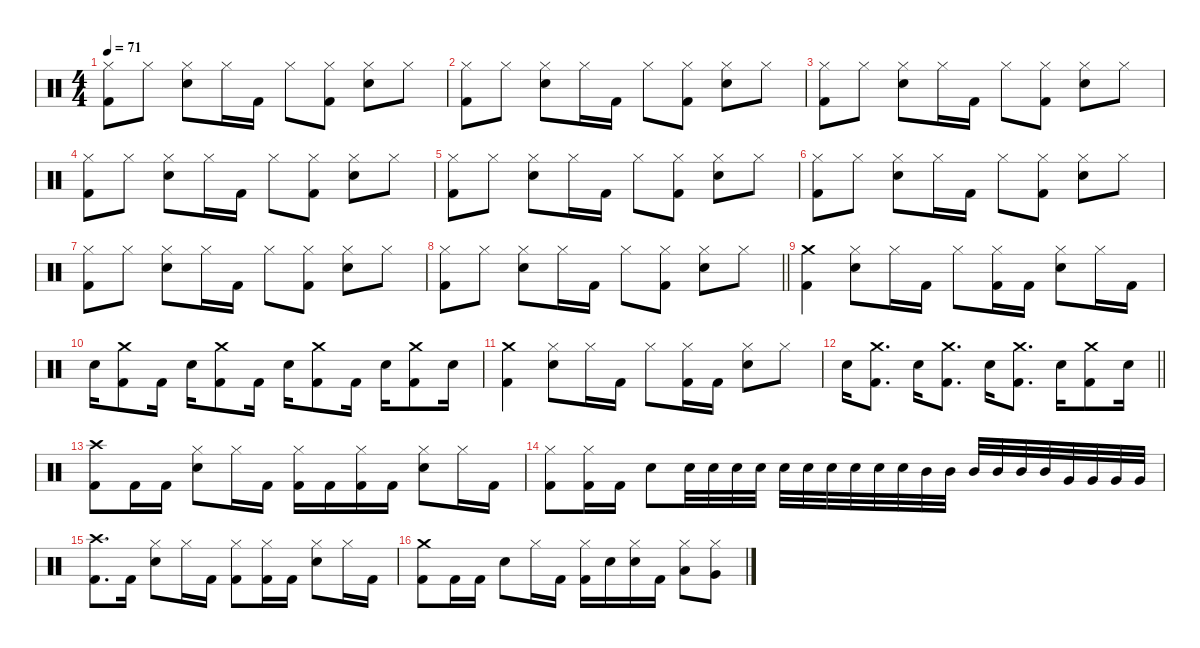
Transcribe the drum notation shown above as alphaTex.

\defaultSystemsLayout 4
\hideDynamics
\bracketExtendMode nobrackets
\singleTrackTrackNamePolicy hidden
\multiTrackTrackNamePolicy hidden
\firstSystemTrackNameMode fullname
\firstSystemTrackNameOrientation horizontal
\otherSystemsTrackNameOrientation horizontal
\track ("Drums" "drm.") {instrument percussion}
\staff {score}
\articulation defaults
\ts (4 4)
\tempo 71
\clef neutral
\ks c
("Hi-Hat (closed)" "Kick (hit) 2").8{dy f beam Down} "Hi-Hat (closed)".8{beam Down} ("Hi-Hat (closed)" "Snare (hit) 2").8{beam Down} "Hi-Hat (closed)".16{beam Down} "Kick (hit) 2".16{beam Down} "Hi-Hat (closed)".8{beam Down} ("Kick (hit) 2" "Hi-Hat (closed)").8{beam Down} ("Hi-Hat (closed)" "Snare (hit) 2").8{beam Down} "Hi-Hat (closed)".8{beam Down} |
("Hi-Hat (closed)" "Kick (hit) 2").8{beam Down} "Hi-Hat (closed)".8{beam Down} ("Hi-Hat (closed)" "Snare (hit) 2").8{beam Down} "Hi-Hat (closed)".16{beam Down} "Kick (hit) 2".16{beam Down} "Hi-Hat (closed)".8{beam Down} ("Kick (hit) 2" "Hi-Hat (closed)").8{beam Down} ("Hi-Hat (closed)" "Snare (hit) 2").8{beam Down} "Hi-Hat (closed)".8{beam Down} |
("Hi-Hat (closed)" "Kick (hit) 2").8{beam Down} "Hi-Hat (closed)".8{beam Down} ("Hi-Hat (closed)" "Snare (hit) 2").8{beam Down} "Hi-Hat (closed)".16{beam Down} "Kick (hit) 2".16{beam Down} "Hi-Hat (closed)".8{beam Down} ("Kick (hit) 2" "Hi-Hat (closed)").8{beam Down} ("Hi-Hat (closed)" "Snare (hit) 2").8{beam Down} "Hi-Hat (closed)".8{beam Down} |
("Hi-Hat (closed)" "Kick (hit) 2").8{beam Down} "Hi-Hat (closed)".8{beam Down} ("Hi-Hat (closed)" "Snare (hit) 2").8{beam Down} "Hi-Hat (closed)".16{beam Down} "Kick (hit) 2".16{beam Down} "Hi-Hat (closed)".8{beam Down} ("Kick (hit) 2" "Hi-Hat (closed)").8{beam Down} ("Hi-Hat (closed)" "Snare (hit) 2").8{beam Down} "Hi-Hat (closed)".8{beam Down} |
("Hi-Hat (closed)" "Kick (hit) 2").8{beam Down} "Hi-Hat (closed)".8{beam Down} ("Hi-Hat (closed)" "Snare (hit) 2").8{beam Down} "Hi-Hat (closed)".16{beam Down} "Kick (hit) 2".16{beam Down} "Hi-Hat (closed)".8{beam Down} ("Kick (hit) 2" "Hi-Hat (closed)").8{beam Down} ("Hi-Hat (closed)" "Snare (hit) 2").8{beam Down} "Hi-Hat (closed)".8{beam Down} |
("Hi-Hat (closed)" "Kick (hit) 2").8{beam Down} "Hi-Hat (closed)".8{beam Down} ("Hi-Hat (closed)" "Snare (hit) 2").8{beam Down} "Hi-Hat (closed)".16{beam Down} "Kick (hit) 2".16{beam Down} "Hi-Hat (closed)".8{beam Down} ("Kick (hit) 2" "Hi-Hat (closed)").8{beam Down} ("Hi-Hat (closed)" "Snare (hit) 2").8{beam Down} "Hi-Hat (closed)".8{beam Down} |
("Hi-Hat (closed)" "Kick (hit) 2").8{beam Down} "Hi-Hat (closed)".8{beam Down} ("Hi-Hat (closed)" "Snare (hit) 2").8{beam Down} "Hi-Hat (closed)".16{beam Down} "Kick (hit) 2".16{beam Down} "Hi-Hat (closed)".8{beam Down} ("Kick (hit) 2" "Hi-Hat (closed)").8{beam Down} ("Hi-Hat (closed)" "Snare (hit) 2").8{beam Down} "Hi-Hat (closed)".8{beam Down} |
\barLineRight lightlight
("Hi-Hat (closed)" "Kick (hit) 2").8{beam Down} "Hi-Hat (closed)".8{beam Down} ("Hi-Hat (closed)" "Snare (hit) 2").8{beam Down} "Hi-Hat (closed)".16{beam Down} "Kick (hit) 2".16{beam Down} "Hi-Hat (closed)".8{beam Down} ("Kick (hit) 2" "Hi-Hat (closed)").8{beam Down} ("Hi-Hat (closed)" "Snare (hit) 2").8{beam Down} "Hi-Hat (closed)".8{beam Down} |
("Crash medium (hit)" "Kick (hit) 2").4{beam Down} ("Snare (hit) 2" "Hi-Hat (closed)").8{beam Down} "Hi-Hat (closed)".16{beam Down} "Kick (hit) 2".16{beam Down} "Hi-Hat (closed)".8{beam Down} ("Hi-Hat (closed)" "Kick (hit) 2").16{beam Down} "Kick (hit) 2".16{beam Down} ("Hi-Hat (closed)" "Snare (hit) 2").8{beam Down} "Hi-Hat (closed)".16{beam Down} "Kick (hit) 2".16{beam Down} |
"Snare (hit) 2".16{beam Down} ("Crash medium (hit)" "Kick (hit) 2").8{beam Down} "Kick (hit) 2".16{beam Down} "Snare (hit) 2".16{beam Down} ("Crash medium (hit)" "Kick (hit) 2").8{beam Down} "Kick (hit) 2".16{beam Down} "Snare (hit) 2".16{beam Down} ("Crash medium (hit)" "Kick (hit) 2").8{beam Down} "Kick (hit) 2".16{beam Down} "Snare (hit) 2".16{beam Down} ("Crash medium (hit)" "Kick (hit) 2").8{beam Down} "Snare (hit) 2".16{beam Down} |
("Kick (hit) 2" "Crash medium (hit)").4{beam Down} ("Hi-Hat (closed)" "Snare (hit) 2").8{beam Down} "Hi-Hat (closed)".16{beam Down} "Kick (hit) 2".16{beam Down} "Hi-Hat (closed)".8{beam Down} ("Kick (hit) 2" "Hi-Hat (closed)").16{beam Down} "Kick (hit) 2".16{beam Down} ("Hi-Hat (closed)" "Snare (hit) 2").8{beam Down} "Hi-Hat (closed)".8{beam Down} |
\barLineRight lightlight "Snare (hit) 2".16{beam Down}
("Crash medium (hit)" "Kick (hit) 2").8{d beam Down} "Snare (hit) 2".16{beam Down} ("Crash medium (hit)" "Kick (hit) 2").8{d beam Down} "Snare (hit) 2".16{beam Down} ("Crash medium (hit)" "Kick (hit) 2").8{d beam Down} "Snare (hit) 2".16{beam Down} ("Kick (hit) 2" "Crash medium (hit)").8{beam Down} "Snare (hit) 2".16{beam Down} |
("Kick (hit) 2" "Crash high (hit)").8{beam Down} "Kick (hit) 2".16{beam Down} "Kick (hit) 2".16{beam Down} ("Snare (hit) 2" "Hi-Hat (closed)").8{beam Down} "Hi-Hat (closed)".16{beam Down} "Kick (hit) 2".16{beam Down} ("Hi-Hat (closed)" "Kick (hit) 2").16{beam Down} "Kick (hit) 2".16{beam Down} ("Hi-Hat (closed)" "Kick (hit) 2").16{beam Down} "Kick (hit) 2".16{beam Down} ("Hi-Hat (closed)" "Snare (hit) 2").8{beam Down} "Hi-Hat (closed)".16{beam Down} "Kick (hit) 2".16{beam Down} |
("Hi-Hat (closed)" "Kick (hit) 2").8{beam Down} ("Hi-Hat (closed)" "Kick (hit) 2").16{beam Down} "Kick (hit) 2".16{beam Down} "Snare (hit) 2".8{beam Down} "Snare (hit) 2".32{beam Down} "Snare (hit) 2".32{beam Down} "Snare (hit) 2".32{beam Down} "Snare (hit) 2".32{beam Down} "Snare (hit) 2".32{beam Down} "Snare (hit) 2".32{beam Down} "Snare (hit) 2".32{beam Down} "Snare (hit) 2".32{beam Down} "Snare (hit) 2".32{beam Down} "Snare (hit) 2".32{beam Down} "Mid Tom (hit)".32{beam Down} "Mid Tom (hit)".32{beam Down} "Mid Tom (hit)".32{beam Up} "Mid Tom (hit)".32{beam Up} "Mid Tom (hit)".32{beam Up} "Mid Tom (hit)".32{beam Up} "Very Low Tom (hit)".32{beam Up} "Very Low Tom (hit)".32{beam Up} "Very Low Tom (hit)".32{beam Up} "Very Low Tom (hit)".32{beam Up} |
("Crash high (hit)" "Kick (hit) 2").8{d beam Down} "Kick (hit) 2".16{beam Down} ("Snare (hit) 2" "Hi-Hat (closed)").8{beam Down} "Hi-Hat (closed)".16{beam Down} "Kick (hit) 2".16{beam Down} ("Hi-Hat (closed)" "Kick (hit) 2").8{beam Down} ("Kick (hit) 2" "Hi-Hat (closed)").16{beam Down} "Kick (hit) 2".16{beam Down} ("Snare (hit) 2" "Hi-Hat (closed)").8{beam Down} "Hi-Hat (closed)".16{beam Down} "Kick (hit) 2".16{beam Down} |
("Crash medium (hit)" "Kick (hit) 2").8{beam Down} "Kick (hit) 2".16{beam Down} "Kick (hit) 2".16{beam Down} "Snare (hit) 2".8{beam Down} "Hi-Hat (closed)".16{beam Down} "Kick (hit) 2".16{beam Down} ("Hi-Hat (closed)" "Kick (hit) 2").16{beam Down} "Snare (hit) 2".16{beam Down} ("Hi-Hat (closed)" "Snare (hit) 2").16{beam Down} "Kick (hit) 2".16{beam Down} ("Hi-Hat (closed)" "Low Tom (hit)").8{beam Down} ("Hi-Hat (closed)" "Very Low Tom (hit)").8{beam Down}
